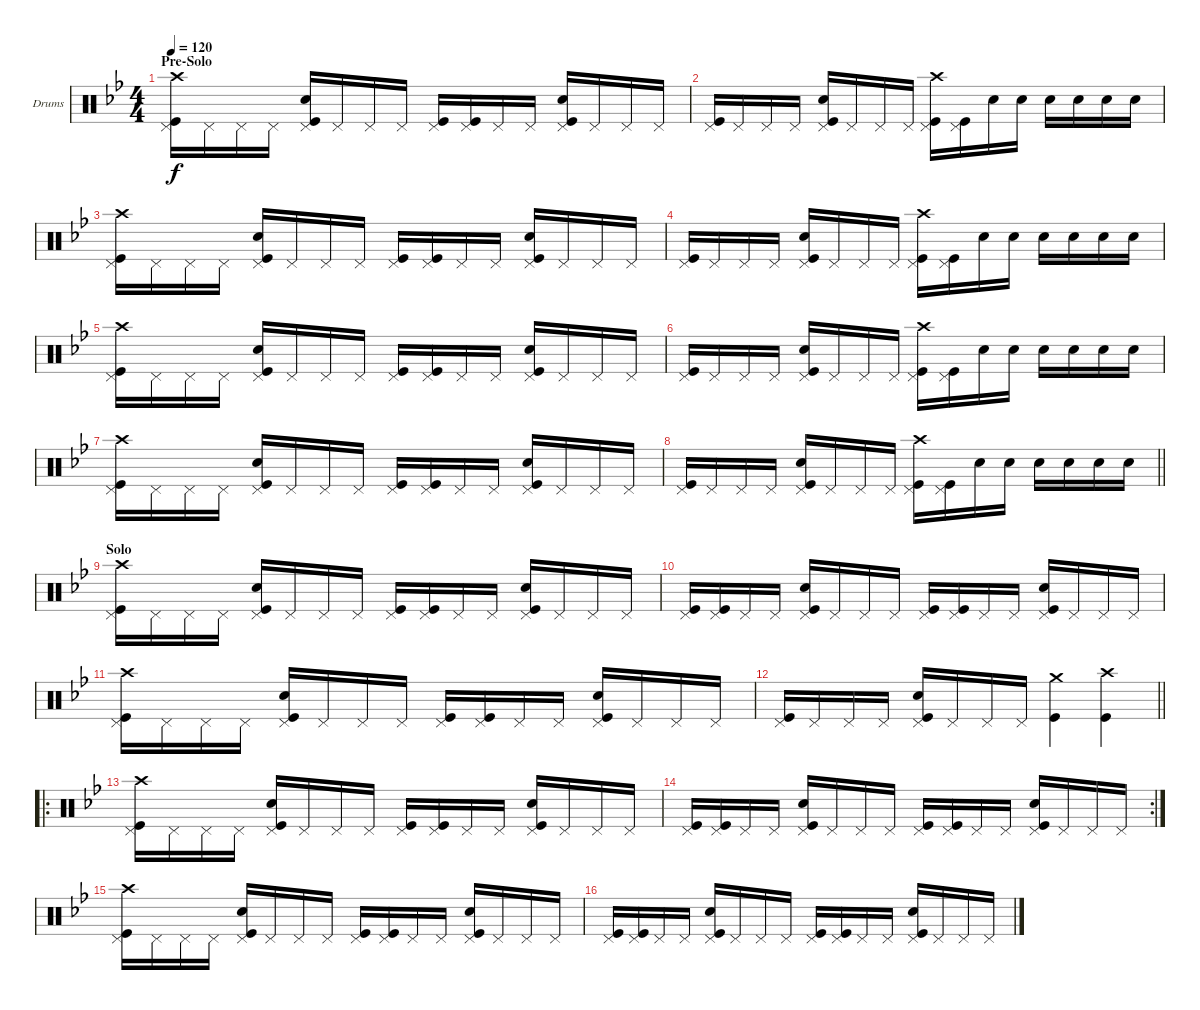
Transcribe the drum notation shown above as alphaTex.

\bracketExtendMode groupsimilarinstruments
\firstSystemTrackNameOrientation horizontal
\otherSystemsTrackNameOrientation horizontal
\track ("Drumkit" "Drums") {instrument percussion}
\staff {score}
\articulation defaults
\ts (4 4)
\section ("" "Pre-Solo")
\tempo 120
\clef neutral
\ks bb
("Crash high (hit)" "Pedal Hi-Hat (hit)" "Kick (hit)").16{dy f} "Pedal Hi-Hat (hit)".16 "Pedal Hi-Hat (hit)".16 "Pedal Hi-Hat (hit)".16 ("Snare (hit) 2" "Pedal Hi-Hat (hit)" "Kick (hit)").16 "Pedal Hi-Hat (hit)".16 "Pedal Hi-Hat (hit)".16 "Pedal Hi-Hat (hit)".16 ("Pedal Hi-Hat (hit)" "Kick (hit)").16 ("Pedal Hi-Hat (hit)" "Kick (hit)").16 "Pedal Hi-Hat (hit)".16 "Pedal Hi-Hat (hit)".16 ("Snare (hit) 2" "Pedal Hi-Hat (hit)" "Kick (hit)").16 "Pedal Hi-Hat (hit)".16 "Pedal Hi-Hat (hit)".16 "Pedal Hi-Hat (hit)".16 |
("Pedal Hi-Hat (hit)" "Kick (hit)").16 "Pedal Hi-Hat (hit)".16 "Pedal Hi-Hat (hit)".16 "Pedal Hi-Hat (hit)".16 ("Snare (hit) 2" "Pedal Hi-Hat (hit)" "Kick (hit)").16 "Pedal Hi-Hat (hit)".16 "Pedal Hi-Hat (hit)".16 "Pedal Hi-Hat (hit)".16 ("Crash high (hit)" "Pedal Hi-Hat (hit)" "Kick (hit)").16 ("Pedal Hi-Hat (hit)" "Kick (hit)").16 "Snare (hit) 2".16 "Snare (hit) 2".16 "Snare (hit) 2".16 "Snare (hit) 2".16 "Snare (hit) 2".16 "Snare (hit) 2".16 |
("Crash high (hit)" "Pedal Hi-Hat (hit)" "Kick (hit)").16 "Pedal Hi-Hat (hit)".16 "Pedal Hi-Hat (hit)".16 "Pedal Hi-Hat (hit)".16 ("Snare (hit) 2" "Pedal Hi-Hat (hit)" "Kick (hit)").16 "Pedal Hi-Hat (hit)".16 "Pedal Hi-Hat (hit)".16 "Pedal Hi-Hat (hit)".16 ("Pedal Hi-Hat (hit)" "Kick (hit)").16 ("Pedal Hi-Hat (hit)" "Kick (hit)").16 "Pedal Hi-Hat (hit)".16 "Pedal Hi-Hat (hit)".16 ("Snare (hit) 2" "Pedal Hi-Hat (hit)" "Kick (hit)").16 "Pedal Hi-Hat (hit)".16 "Pedal Hi-Hat (hit)".16 "Pedal Hi-Hat (hit)".16 |
("Pedal Hi-Hat (hit)" "Kick (hit)").16 "Pedal Hi-Hat (hit)".16 "Pedal Hi-Hat (hit)".16 "Pedal Hi-Hat (hit)".16 ("Snare (hit) 2" "Pedal Hi-Hat (hit)" "Kick (hit)").16 "Pedal Hi-Hat (hit)".16 "Pedal Hi-Hat (hit)".16 "Pedal Hi-Hat (hit)".16 ("Crash high (hit)" "Pedal Hi-Hat (hit)" "Kick (hit)").16 ("Pedal Hi-Hat (hit)" "Kick (hit)").16 "Snare (hit) 2".16 "Snare (hit) 2".16 "Snare (hit) 2".16 "Snare (hit) 2".16 "Snare (hit) 2".16 "Snare (hit) 2".16 |
("Crash high (hit)" "Pedal Hi-Hat (hit)" "Kick (hit)").16 "Pedal Hi-Hat (hit)".16 "Pedal Hi-Hat (hit)".16 "Pedal Hi-Hat (hit)".16 ("Snare (hit) 2" "Pedal Hi-Hat (hit)" "Kick (hit)").16 "Pedal Hi-Hat (hit)".16 "Pedal Hi-Hat (hit)".16 "Pedal Hi-Hat (hit)".16 ("Pedal Hi-Hat (hit)" "Kick (hit)").16 ("Pedal Hi-Hat (hit)" "Kick (hit)").16 "Pedal Hi-Hat (hit)".16 "Pedal Hi-Hat (hit)".16 ("Snare (hit) 2" "Pedal Hi-Hat (hit)" "Kick (hit)").16 "Pedal Hi-Hat (hit)".16 "Pedal Hi-Hat (hit)".16 "Pedal Hi-Hat (hit)".16 |
("Pedal Hi-Hat (hit)" "Kick (hit)").16 "Pedal Hi-Hat (hit)".16 "Pedal Hi-Hat (hit)".16 "Pedal Hi-Hat (hit)".16 ("Snare (hit) 2" "Pedal Hi-Hat (hit)" "Kick (hit)").16 "Pedal Hi-Hat (hit)".16 "Pedal Hi-Hat (hit)".16 "Pedal Hi-Hat (hit)".16 ("Crash high (hit)" "Pedal Hi-Hat (hit)" "Kick (hit)").16 ("Pedal Hi-Hat (hit)" "Kick (hit)").16 "Snare (hit) 2".16 "Snare (hit) 2".16 "Snare (hit) 2".16 "Snare (hit) 2".16 "Snare (hit) 2".16 "Snare (hit) 2".16 |
("Crash high (hit)" "Pedal Hi-Hat (hit)" "Kick (hit)").16 "Pedal Hi-Hat (hit)".16 "Pedal Hi-Hat (hit)".16 "Pedal Hi-Hat (hit)".16 ("Snare (hit) 2" "Pedal Hi-Hat (hit)" "Kick (hit)").16 "Pedal Hi-Hat (hit)".16 "Pedal Hi-Hat (hit)".16 "Pedal Hi-Hat (hit)".16 ("Pedal Hi-Hat (hit)" "Kick (hit)").16 ("Pedal Hi-Hat (hit)" "Kick (hit)").16 "Pedal Hi-Hat (hit)".16 "Pedal Hi-Hat (hit)".16 ("Snare (hit) 2" "Pedal Hi-Hat (hit)" "Kick (hit)").16 "Pedal Hi-Hat (hit)".16 "Pedal Hi-Hat (hit)".16 "Pedal Hi-Hat (hit)".16 |
\barLineRight lightlight
("Pedal Hi-Hat (hit)" "Kick (hit)").16 "Pedal Hi-Hat (hit)".16 "Pedal Hi-Hat (hit)".16 "Pedal Hi-Hat (hit)".16 ("Snare (hit) 2" "Pedal Hi-Hat (hit)" "Kick (hit)").16 "Pedal Hi-Hat (hit)".16 "Pedal Hi-Hat (hit)".16 "Pedal Hi-Hat (hit)".16 ("Crash high (hit)" "Pedal Hi-Hat (hit)" "Kick (hit)").16 ("Pedal Hi-Hat (hit)" "Kick (hit)").16 "Snare (hit) 2".16 "Snare (hit) 2".16 "Snare (hit) 2".16 "Snare (hit) 2".16 "Snare (hit) 2".16 "Snare (hit) 2".16 |
\section ("" "Solo")
("Crash high (hit)" "Pedal Hi-Hat (hit)" "Kick (hit)").16 "Pedal Hi-Hat (hit)".16 "Pedal Hi-Hat (hit)".16 "Pedal Hi-Hat (hit)".16 ("Snare (hit) 2" "Pedal Hi-Hat (hit)" "Kick (hit)").16 "Pedal Hi-Hat (hit)".16 "Pedal Hi-Hat (hit)".16 "Pedal Hi-Hat (hit)".16 ("Pedal Hi-Hat (hit)" "Kick (hit)").16 ("Pedal Hi-Hat (hit)" "Kick (hit)").16 "Pedal Hi-Hat (hit)".16 "Pedal Hi-Hat (hit)".16 ("Snare (hit) 2" "Pedal Hi-Hat (hit)" "Kick (hit)").16 "Pedal Hi-Hat (hit)".16 "Pedal Hi-Hat (hit)".16 "Pedal Hi-Hat (hit)".16 |
("Pedal Hi-Hat (hit)" "Kick (hit)").16 ("Pedal Hi-Hat (hit)" "Kick (hit)").16 "Pedal Hi-Hat (hit)".16 "Pedal Hi-Hat (hit)".16 ("Snare (hit) 2" "Pedal Hi-Hat (hit)" "Kick (hit)").16 "Pedal Hi-Hat (hit)".16 "Pedal Hi-Hat (hit)".16 "Pedal Hi-Hat (hit)".16 ("Pedal Hi-Hat (hit)" "Kick (hit)").16 ("Pedal Hi-Hat (hit)" "Kick (hit)").16 "Pedal Hi-Hat (hit)".16 "Pedal Hi-Hat (hit)".16 ("Snare (hit) 2" "Pedal Hi-Hat (hit)" "Kick (hit)").16 "Pedal Hi-Hat (hit)".16 "Pedal Hi-Hat (hit)".16 "Pedal Hi-Hat (hit)".16 |
("Crash high (hit)" "Pedal Hi-Hat (hit)" "Kick (hit)").16 "Pedal Hi-Hat (hit)".16 "Pedal Hi-Hat (hit)".16 "Pedal Hi-Hat (hit)".16 ("Snare (hit) 2" "Pedal Hi-Hat (hit)" "Kick (hit)").16 "Pedal Hi-Hat (hit)".16 "Pedal Hi-Hat (hit)".16 "Pedal Hi-Hat (hit)".16 ("Pedal Hi-Hat (hit)" "Kick (hit)").16 ("Pedal Hi-Hat (hit)" "Kick (hit)").16 "Pedal Hi-Hat (hit)".16 "Pedal Hi-Hat (hit)".16 ("Snare (hit) 2" "Pedal Hi-Hat (hit)" "Kick (hit)").16 "Pedal Hi-Hat (hit)".16 "Pedal Hi-Hat (hit)".16 "Pedal Hi-Hat (hit)".16 |
\barLineRight lightlight
("Pedal Hi-Hat (hit)" "Kick (hit)").16 "Pedal Hi-Hat (hit)".16 "Pedal Hi-Hat (hit)".16 "Pedal Hi-Hat (hit)".16 ("Snare (hit) 2" "Pedal Hi-Hat (hit)" "Kick (hit)").16 "Pedal Hi-Hat (hit)".16 "Pedal Hi-Hat (hit)".16 "Pedal Hi-Hat (hit)".16 ("Crash medium (hit)" "Kick (hit)").4 ("Crash high (hit)" "Kick (hit)").4 |
\ro
("Crash high (hit)" "Pedal Hi-Hat (hit)" "Kick (hit)").16 "Pedal Hi-Hat (hit)".16 "Pedal Hi-Hat (hit)".16 "Pedal Hi-Hat (hit)".16 ("Snare (hit) 2" "Pedal Hi-Hat (hit)" "Kick (hit)").16 "Pedal Hi-Hat (hit)".16 "Pedal Hi-Hat (hit)".16 "Pedal Hi-Hat (hit)".16 ("Pedal Hi-Hat (hit)" "Kick (hit)").16 ("Pedal Hi-Hat (hit)" "Kick (hit)").16 "Pedal Hi-Hat (hit)".16 "Pedal Hi-Hat (hit)".16 ("Snare (hit) 2" "Pedal Hi-Hat (hit)" "Kick (hit)").16 "Pedal Hi-Hat (hit)".16 "Pedal Hi-Hat (hit)".16 "Pedal Hi-Hat (hit)".16 |
\rc 2
("Pedal Hi-Hat (hit)" "Kick (hit)").16 ("Pedal Hi-Hat (hit)" "Kick (hit)").16 "Pedal Hi-Hat (hit)".16 "Pedal Hi-Hat (hit)".16 ("Snare (hit) 2" "Pedal Hi-Hat (hit)" "Kick (hit)").16 "Pedal Hi-Hat (hit)".16 "Pedal Hi-Hat (hit)".16 "Pedal Hi-Hat (hit)".16 ("Pedal Hi-Hat (hit)" "Kick (hit)").16 ("Pedal Hi-Hat (hit)" "Kick (hit)").16 "Pedal Hi-Hat (hit)".16 "Pedal Hi-Hat (hit)".16 ("Snare (hit) 2" "Pedal Hi-Hat (hit)" "Kick (hit)").16 "Pedal Hi-Hat (hit)".16 "Pedal Hi-Hat (hit)".16 "Pedal Hi-Hat (hit)".16 |
("Crash high (hit)" "Pedal Hi-Hat (hit)" "Kick (hit)").16 "Pedal Hi-Hat (hit)".16 "Pedal Hi-Hat (hit)".16 "Pedal Hi-Hat (hit)".16 ("Snare (hit) 2" "Pedal Hi-Hat (hit)" "Kick (hit)").16 "Pedal Hi-Hat (hit)".16 "Pedal Hi-Hat (hit)".16 "Pedal Hi-Hat (hit)".16 ("Pedal Hi-Hat (hit)" "Kick (hit)").16 ("Pedal Hi-Hat (hit)" "Kick (hit)").16 "Pedal Hi-Hat (hit)".16 "Pedal Hi-Hat (hit)".16 ("Snare (hit) 2" "Pedal Hi-Hat (hit)" "Kick (hit)").16 "Pedal Hi-Hat (hit)".16 "Pedal Hi-Hat (hit)".16 "Pedal Hi-Hat (hit)".16 |
("Pedal Hi-Hat (hit)" "Kick (hit)").16 ("Pedal Hi-Hat (hit)" "Kick (hit)").16 "Pedal Hi-Hat (hit)".16 "Pedal Hi-Hat (hit)".16 ("Snare (hit) 2" "Pedal Hi-Hat (hit)" "Kick (hit)").16 "Pedal Hi-Hat (hit)".16 "Pedal Hi-Hat (hit)".16 "Pedal Hi-Hat (hit)".16 ("Pedal Hi-Hat (hit)" "Kick (hit)").16 ("Pedal Hi-Hat (hit)" "Kick (hit)").16 "Pedal Hi-Hat (hit)".16 "Pedal Hi-Hat (hit)".16 ("Snare (hit) 2" "Pedal Hi-Hat (hit)" "Kick (hit)").16 "Pedal Hi-Hat (hit)".16 "Pedal Hi-Hat (hit)".16 "Pedal Hi-Hat (hit)".16
